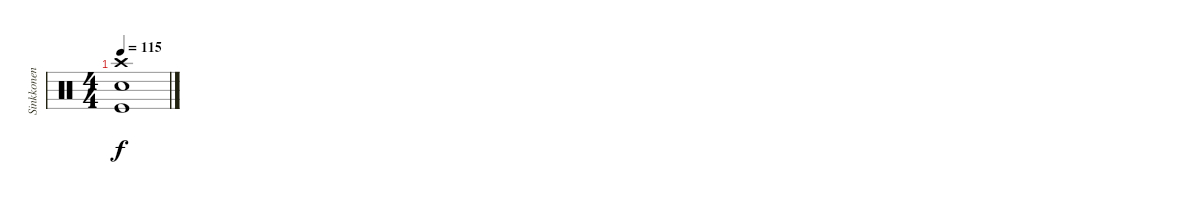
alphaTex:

\track ("Sinkkonen" "Sinkkonen") {instrument percussion}
\staff {score}
\articulation defaults
\ts (4 4)
\tempo 115
\clef neutral
\ks c
("Crash high (hit)" "Snare (hit) 2" "Kick (hit)").1{dy f}
